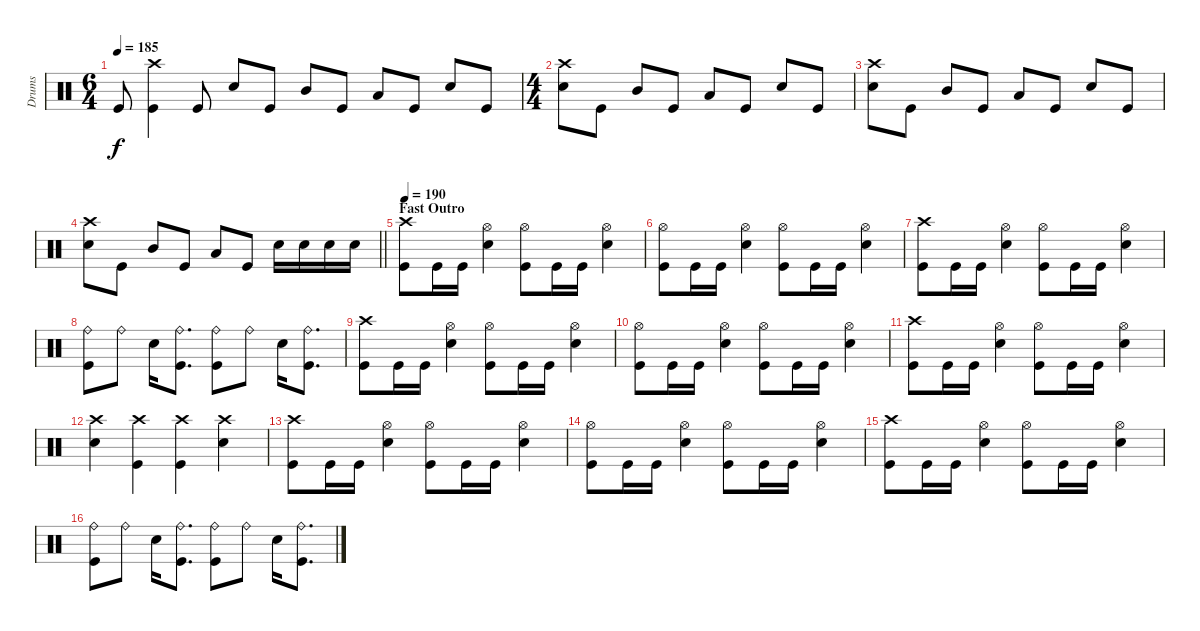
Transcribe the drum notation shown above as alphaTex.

\track ("Drums" "Drums") {instrument percussion}
\staff {score}
\articulation defaults
\ts (6 4)
\tempo 185
\clef neutral
\ks c "Kick (hit)"{t}.8{dy f}
("Crash high (hit)" "Kick (hit)").4 "Kick (hit)".8 "Snare (hit) 2".8 "Kick (hit)".8 "Mid Tom (hit)".8 "Kick (hit)".8 "Low Tom (hit)".8 "Kick (hit)".8 "Snare (hit) 2".8 "Kick (hit)".8 |
\ts (4 4)
("Crash high (hit)" "Snare (hit) 2").8 "Kick (hit)".8 "Mid Tom (hit)".8 "Kick (hit)".8 "Low Tom (hit)".8 "Kick (hit)".8 "Snare (hit) 2".8 "Kick (hit)".8 |
("Crash high (hit)" "Snare (hit) 2").8 "Kick (hit)".8 "Mid Tom (hit)".8 "Kick (hit)".8 "Low Tom (hit)".8 "Kick (hit)".8 "Snare (hit) 2".8 "Kick (hit)".8 |
\barLineRight lightlight
("Crash high (hit)" "Snare (hit) 2").8 "Kick (hit)".8 "Mid Tom (hit)".8 "Kick (hit)".8 "Low Tom (hit)".8 "Kick (hit)".8 "Snare (hit) 2".16 "Snare (hit) 2".16 "Snare (hit) 2".16 "Snare (hit) 2".16 |
\section ("" "Fast Outro")
\tempo 190
("Crash high (hit)" "Kick (hit)").8 "Kick (hit)".16 "Kick (hit)".16 ("Hi-Hat (open)" "Snare (hit) 2").4 ("Hi-Hat (open)" "Kick (hit)").8 "Kick (hit)".16 "Kick (hit)".16 ("Hi-Hat (open)" "Snare (hit) 2").4 |
("Hi-Hat (open)" "Kick (hit)").8 "Kick (hit)".16 "Kick (hit)".16 ("Hi-Hat (open)" "Snare (hit) 2").4 ("Hi-Hat (open)" "Kick (hit)").8 "Kick (hit)".16 "Kick (hit)".16 ("Hi-Hat (open)" "Snare (hit) 2").4 |
("Crash high (hit)" "Kick (hit)").8 "Kick (hit)".16 "Kick (hit)".16 ("Hi-Hat (open)" "Snare (hit) 2").4 ("Hi-Hat (open)" "Kick (hit)").8 "Kick (hit)".16 "Kick (hit)".16 ("Hi-Hat (open)" "Snare (hit) 2").4 |
("Ride (bell)" "Kick (hit)").8 "Ride (bell)".8 "Snare (hit) 2".16 ("Ride (bell)" "Kick (hit)").8{d} ("Ride (bell)" "Kick (hit)").8 "Ride (bell)".8 "Snare (hit) 2".16 ("Ride (bell)" "Kick (hit)").8{d} |
("Crash high (hit)" "Kick (hit)").8 "Kick (hit)".16 "Kick (hit)".16 ("Hi-Hat (open)" "Snare (hit) 2").4 ("Hi-Hat (open)" "Kick (hit)").8 "Kick (hit)".16 "Kick (hit)".16 ("Hi-Hat (open)" "Snare (hit) 2").4 |
("Hi-Hat (open)" "Kick (hit)").8 "Kick (hit)".16 "Kick (hit)".16 ("Hi-Hat (open)" "Snare (hit) 2").4 ("Hi-Hat (open)" "Kick (hit)").8 "Kick (hit)".16 "Kick (hit)".16 ("Hi-Hat (open)" "Snare (hit) 2").4 |
("Crash high (hit)" "Kick (hit)").8 "Kick (hit)".16 "Kick (hit)".16 ("Hi-Hat (open)" "Snare (hit) 2").4 ("Hi-Hat (open)" "Kick (hit)").8 "Kick (hit)".16 "Kick (hit)".16 ("Hi-Hat (open)" "Snare (hit) 2").4 |
("Crash high (hit)" "Snare (hit) 2").4 ("Crash high (hit)" "Kick (hit)").4 ("Crash high (hit)" "Kick (hit)").4 ("Crash high (hit)" "Snare (hit) 2").4 |
("Crash high (hit)" "Kick (hit)").8 "Kick (hit)".16 "Kick (hit)".16 ("Hi-Hat (open)" "Snare (hit) 2").4 ("Hi-Hat (open)" "Kick (hit)").8 "Kick (hit)".16 "Kick (hit)".16 ("Hi-Hat (open)" "Snare (hit) 2").4 |
("Hi-Hat (open)" "Kick (hit)").8 "Kick (hit)".16 "Kick (hit)".16 ("Hi-Hat (open)" "Snare (hit) 2").4 ("Hi-Hat (open)" "Kick (hit)").8 "Kick (hit)".16 "Kick (hit)".16 ("Hi-Hat (open)" "Snare (hit) 2").4 |
("Crash high (hit)" "Kick (hit)").8 "Kick (hit)".16 "Kick (hit)".16 ("Hi-Hat (open)" "Snare (hit) 2").4 ("Hi-Hat (open)" "Kick (hit)").8 "Kick (hit)".16 "Kick (hit)".16 ("Hi-Hat (open)" "Snare (hit) 2").4 |
("Ride (bell)" "Kick (hit)").8 "Ride (bell)".8 "Snare (hit) 2".16 ("Ride (bell)" "Kick (hit)").8{d} ("Ride (bell)" "Kick (hit)").8 "Ride (bell)".8 "Snare (hit) 2".16 ("Ride (bell)" "Kick (hit)").8{d}
